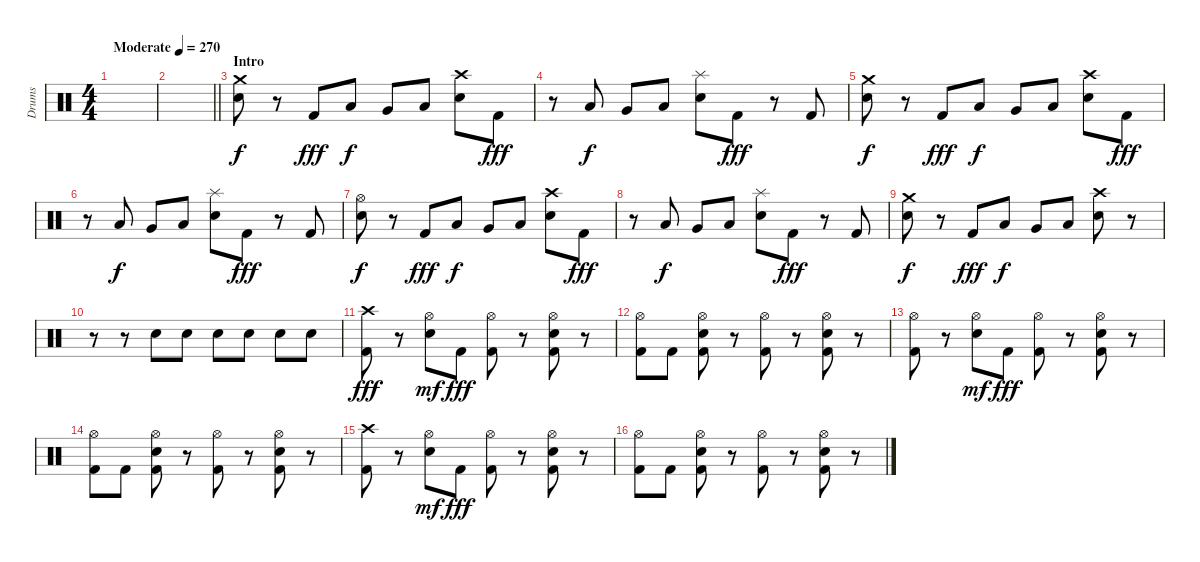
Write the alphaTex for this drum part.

\track ("Drums" "Drums") {instrument percussion}
\staff {score}
\articulation defaults
\ts (4 4)
\tempo (270 "Moderate")
\clef neutral
\ks c
|
\barLineRight lightlight
|
\section ("" "Intro")
("Crash medium (hit)" "Electric Snare (hit)").8 r.8 "Kick (hit) 2".8{dy fff} "Low Tom (hit)".8{dy f} "Very Low Tom (hit)".8 "Low Floor Tom (hit)".8 ("Crash high (hit)" "Electric Snare (hit)").8 "Kick (hit) 2".8{dy fff} |
r.8 "Low Tom (hit)".8{dy f} "Very Low Tom (hit)".8 "Low Floor Tom (hit)".8 ("Splash (hit)" "Electric Snare (hit)").8 "Kick (hit) 2".8{dy fff} r.8 "Kick (hit) 2".8 |
("Crash medium (hit)" "Electric Snare (hit)").8{dy f} r.8 "Kick (hit) 2".8{dy fff} "Low Tom (hit)".8{dy f} "Very Low Tom (hit)".8 "Low Floor Tom (hit)".8 ("Crash high (hit)" "Electric Snare (hit)").8 "Kick (hit) 2".8{dy fff} |
r.8 "Low Tom (hit)".8{dy f} "Very Low Tom (hit)".8 "Low Floor Tom (hit)".8 ("Splash (hit)" "Electric Snare (hit)").8 "Kick (hit) 2".8{dy fff} r.8 "Kick (hit) 2".8 |
("Hi-Hat (open)" "Electric Snare (hit)").8{dy f} r.8 "Kick (hit) 2".8{dy fff} "Low Tom (hit)".8{dy f} "Very Low Tom (hit)".8 "Low Floor Tom (hit)".8 ("Crash high (hit)" "Electric Snare (hit)").8 "Kick (hit) 2".8{dy fff} |
r.8 "Low Tom (hit)".8{dy f} "Very Low Tom (hit)".8 "Low Floor Tom (hit)".8 ("Splash (hit)" "Electric Snare (hit)").8 "Kick (hit) 2".8{dy fff} r.8 "Kick (hit) 2".8 |
("Crash medium (hit)" "Electric Snare (hit)").8{dy f} r.8 "Kick (hit) 2".8{dy fff} "Low Tom (hit)".8{dy f} "Very Low Tom (hit)".8 "Low Floor Tom (hit)".8 ("Crash high (hit)" "Electric Snare (hit)").8 r.8 |
r.8 r.8 "Electric Snare (hit)".8 "Electric Snare (hit)".8 "Electric Snare (hit)".8 "Electric Snare (hit)".8 "Electric Snare (hit)".8 "Electric Snare (hit)".8 |
("Crash high (hit)" "Kick (hit) 2").8{dy fff} r.8 ("Hi-Hat (open)" "Electric Snare (hit)").8{dy mf} "Kick (hit) 2".8{dy fff} ("Hi-Hat (open)" "Kick (hit) 2").8 r.8 ("Hi-Hat (open)" "Electric Snare (hit)" "Kick (hit) 2").8 r.8 |
("Hi-Hat (open)" "Kick (hit) 2").8 "Kick (hit) 2".8 ("Hi-Hat (open)" "Electric Snare (hit)" "Kick (hit) 2").8 r.8 ("Hi-Hat (open)" "Kick (hit) 2").8 r.8 ("Hi-Hat (open)" "Electric Snare (hit)" "Kick (hit) 2").8 r.8 |
("Hi-Hat (open)" "Kick (hit) 2").8 r.8 ("Hi-Hat (open)" "Electric Snare (hit)").8{dy mf} "Kick (hit) 2".8{dy fff} ("Hi-Hat (open)" "Kick (hit) 2").8 r.8 ("Hi-Hat (open)" "Electric Snare (hit)" "Kick (hit) 2").8 r.8 |
("Hi-Hat (open)" "Kick (hit) 2").8 "Kick (hit) 2".8 ("Hi-Hat (open)" "Electric Snare (hit)" "Kick (hit) 2").8 r.8 ("Hi-Hat (open)" "Kick (hit) 2").8 r.8 ("Hi-Hat (open)" "Electric Snare (hit)" "Kick (hit) 2").8 r.8 |
("Crash high (hit)" "Kick (hit) 2").8 r.8 ("Hi-Hat (open)" "Electric Snare (hit)").8{dy mf} "Kick (hit) 2".8{dy fff} ("Hi-Hat (open)" "Kick (hit) 2").8 r.8 ("Hi-Hat (open)" "Electric Snare (hit)" "Kick (hit) 2").8 r.8 |
("Hi-Hat (open)" "Kick (hit) 2").8 "Kick (hit) 2".8 ("Hi-Hat (open)" "Electric Snare (hit)" "Kick (hit) 2").8 r.8 ("Hi-Hat (open)" "Kick (hit) 2").8 r.8 ("Hi-Hat (open)" "Electric Snare (hit)" "Kick (hit) 2").8 r.8
